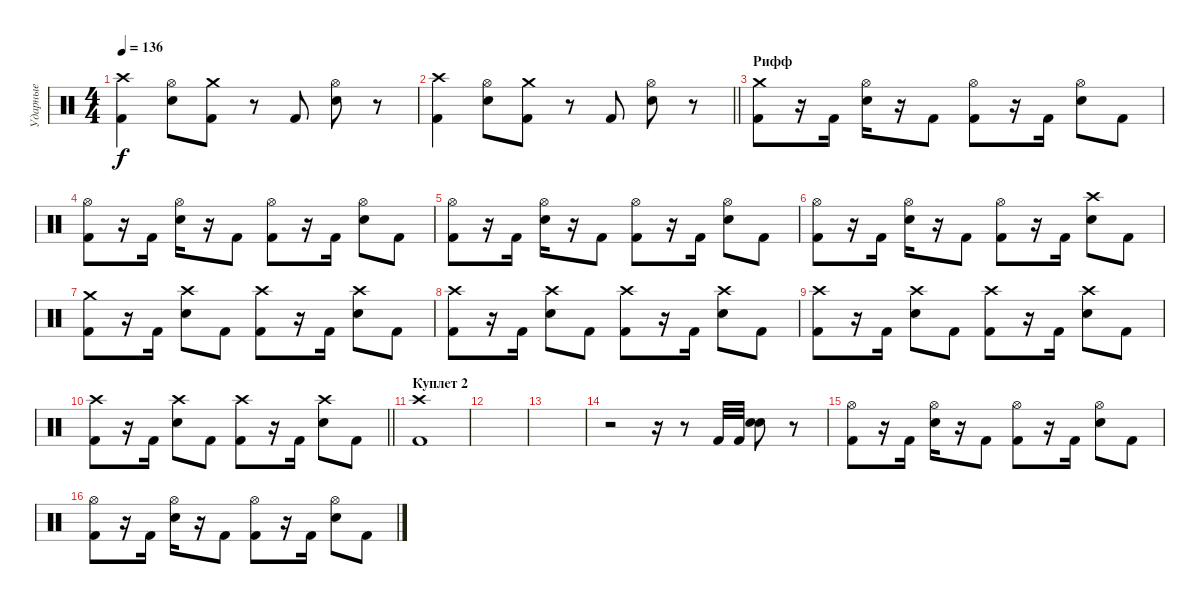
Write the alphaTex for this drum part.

\track ("Ударные" "Ударные") {instrument percussion}
\staff {score}
\articulation defaults
\ts (4 4)
\tempo 136
\clef neutral
\ks c
("Crash high (hit)" "Kick (hit) 2").4{dy f} ("Hi-Hat (open)" "Snare (hit) 2").8 ("Crash medium (hit)" "Kick (hit) 2").8 r.8 "Kick (hit) 2".8 ("Hi-Hat (open)" "Snare (hit) 2").8 r.8 |
\barLineRight lightlight
("Crash high (hit)" "Kick (hit) 2").4 ("Hi-Hat (open)" "Snare (hit) 2").8 ("Crash medium (hit)" "Kick (hit) 2").8 r.8 "Kick (hit) 2".8 ("Hi-Hat (open)" "Snare (hit) 2").8 r.8 |
\section ("" "Рифф")
("Crash medium (hit)" "Kick (hit) 2").8 r.16 "Kick (hit) 2".16 ("Hi-Hat (open)" "Snare (hit) 2").16 r.16 "Kick (hit) 2".8 ("Hi-Hat (open)" "Kick (hit) 2").8 r.16 "Kick (hit) 2".16 ("Hi-Hat (open)" "Snare (hit) 2").8 "Kick (hit) 2".8 |
("Hi-Hat (open)" "Kick (hit) 2").8 r.16 "Kick (hit) 2".16 ("Hi-Hat (open)" "Snare (hit) 2").16 r.16 "Kick (hit) 2".8 ("Hi-Hat (open)" "Kick (hit) 2").8 r.16 "Kick (hit) 2".16 ("Hi-Hat (open)" "Snare (hit) 2").8 "Kick (hit) 2".8 |
("Hi-Hat (open)" "Kick (hit) 2").8 r.16 "Kick (hit) 2".16 ("Hi-Hat (open)" "Snare (hit) 2").16 r.16 "Kick (hit) 2".8 ("Hi-Hat (open)" "Kick (hit) 2").8 r.16 "Kick (hit) 2".16 ("Hi-Hat (open)" "Snare (hit) 2").8 "Kick (hit) 2".8 |
("Hi-Hat (open)" "Kick (hit) 2").8 r.16 "Kick (hit) 2".16 ("Hi-Hat (open)" "Snare (hit) 2").16 r.16 "Kick (hit) 2".8 ("Hi-Hat (open)" "Kick (hit) 2").8 r.16 "Kick (hit) 2".16 ("Crash high (hit)" "Snare (hit) 2").8 "Kick (hit) 2".8 |
("Crash medium (hit)" "Kick (hit) 2").8 r.16 "Kick (hit) 2".16 ("Crash high (hit)" "Snare (hit) 2").8 "Kick (hit) 2".8 ("Crash high (hit)" "Kick (hit) 2").8 r.16 "Kick (hit) 2".16 ("Crash high (hit)" "Snare (hit) 2").8 "Kick (hit) 2".8 |
("Crash high (hit)" "Kick (hit) 2").8 r.16 "Kick (hit) 2".16 ("Crash high (hit)" "Snare (hit) 2").8 "Kick (hit) 2".8 ("Crash high (hit)" "Kick (hit) 2").8 r.16 "Kick (hit) 2".16 ("Crash high (hit)" "Snare (hit) 2").8 "Kick (hit) 2".8 |
("Crash high (hit)" "Kick (hit) 2").8 r.16 "Kick (hit) 2".16 ("Crash high (hit)" "Snare (hit) 2").8 "Kick (hit) 2".8 ("Crash high (hit)" "Kick (hit) 2").8 r.16 "Kick (hit) 2".16 ("Crash high (hit)" "Snare (hit) 2").8 "Kick (hit) 2".8 |
\barLineRight lightlight
("Crash high (hit)" "Kick (hit) 2").8 r.16 "Kick (hit) 2".16 ("Crash high (hit)" "Snare (hit) 2").8 "Kick (hit) 2".8 ("Crash high (hit)" "Kick (hit) 2").8 r.16 "Kick (hit) 2".16 ("Crash high (hit)" "Snare (hit) 2").8 "Kick (hit) 2".8 |
\section ("" "Куплет 2")
("Crash high (hit)" "Kick (hit) 2").1 |
|
|
r.2 r.16 r.8 "Kick (hit) 2".32 "Kick (hit) 2".32 ("Snare (hit) 2" "Snare (hit) 2").8 r.8 |
("Hi-Hat (open)" "Kick (hit) 2").8 r.16 "Kick (hit) 2".16 ("Hi-Hat (open)" "Snare (hit) 2").16 r.16 "Kick (hit) 2".8 ("Hi-Hat (open)" "Kick (hit) 2").8 r.16 "Kick (hit) 2".16 ("Hi-Hat (open)" "Snare (hit) 2").8 "Kick (hit) 2".8 |
("Hi-Hat (open)" "Kick (hit) 2").8 r.16 "Kick (hit) 2".16 ("Hi-Hat (open)" "Snare (hit) 2").16 r.16 "Kick (hit) 2".8 ("Hi-Hat (open)" "Kick (hit) 2").8 r.16 "Kick (hit) 2".16 ("Hi-Hat (open)" "Snare (hit) 2").8 "Kick (hit) 2".8
